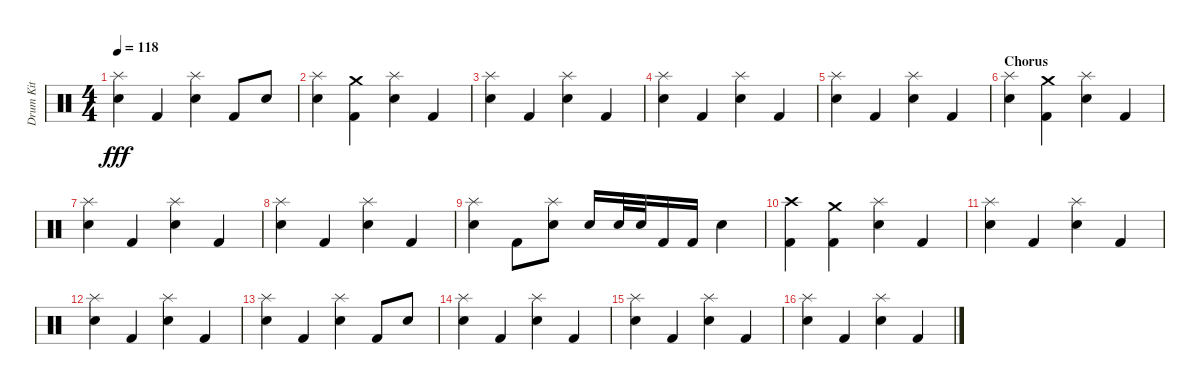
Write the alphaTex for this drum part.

\track ("Drum Kit" "Drum Kit") {instrument percussion}
\staff {score}
\articulation defaults
\ts (4 4)
\tempo 118
\clef neutral
\ks c
("Splash (hit)" "Electric Snare (hit)").4{dy fff} "Kick (hit) 2".4 ("Splash (hit)" "Electric Snare (hit)").4 "Kick (hit) 2".8 "Electric Snare (hit)".8 |
("Splash (hit)" "Electric Snare (hit)").4 ("Crash medium (hit)" "Kick (hit) 2").4 ("Electric Snare (hit)" "Splash (hit)").4 "Kick (hit) 2".4 |
("Splash (hit)" "Electric Snare (hit)").4 "Kick (hit) 2".4 ("Electric Snare (hit)" "Splash (hit)").4 "Kick (hit) 2".4 |
("Electric Snare (hit)" "Splash (hit)").4 "Kick (hit) 2".4 ("Electric Snare (hit)" "Splash (hit)").4 "Kick (hit) 2".4 |
("Splash (hit)" "Electric Snare (hit)").4 "Kick (hit) 2".4 ("Electric Snare (hit)" "Splash (hit)").4 "Kick (hit) 2".4 |
\section ("" "Chorus")
("Electric Snare (hit)" "Splash (hit)").4 ("Kick (hit) 2" "Crash medium (hit)").4 ("Electric Snare (hit)" "Splash (hit)").4 "Kick (hit) 2".4 |
("Splash (hit)" "Electric Snare (hit)").4 "Kick (hit) 2".4 ("Electric Snare (hit)" "Splash (hit)").4 "Kick (hit) 2".4 |
("Electric Snare (hit)" "Splash (hit)").4 "Kick (hit) 2".4 ("Electric Snare (hit)" "Splash (hit)").4 "Kick (hit) 2".4 |
("Electric Snare (hit)" "Splash (hit)").4 "Kick (hit) 2".8 ("Splash (hit)" "Electric Snare (hit)").8 "Electric Snare (hit)".16 "Electric Snare (hit)".32 "Electric Snare (hit)".32 "Kick (hit) 2".16 "Kick (hit) 2".16 "Electric Snare (hit)".4 |
("Crash high (hit)" "Kick (hit) 2").4 ("Kick (hit) 2" "Crash medium (hit)").4 ("Splash (hit)" "Electric Snare (hit)").4 "Kick (hit) 2".4 |
("Electric Snare (hit)" "Splash (hit)").4 "Kick (hit) 2".4 ("Electric Snare (hit)" "Splash (hit)").4 "Kick (hit) 2".4 |
("Electric Snare (hit)" "Splash (hit)").4 "Kick (hit) 2".4 ("Electric Snare (hit)" "Splash (hit)").4 "Kick (hit) 2".4 |
("Splash (hit)" "Electric Snare (hit)").4 "Kick (hit) 2".4 ("Splash (hit)" "Electric Snare (hit)").4 "Kick (hit) 2".8 "Electric Snare (hit)".8 |
("Electric Snare (hit)" "Splash (hit)").4 "Kick (hit) 2".4 ("Electric Snare (hit)" "Splash (hit)").4 "Kick (hit) 2".4 |
("Splash (hit)" "Electric Snare (hit)").4 "Kick (hit) 2".4 ("Electric Snare (hit)" "Splash (hit)").4 "Kick (hit) 2".4 |
("Electric Snare (hit)" "Splash (hit)").4 "Kick (hit) 2".4 ("Splash (hit)" "Electric Snare (hit)").4 "Kick (hit) 2".4
